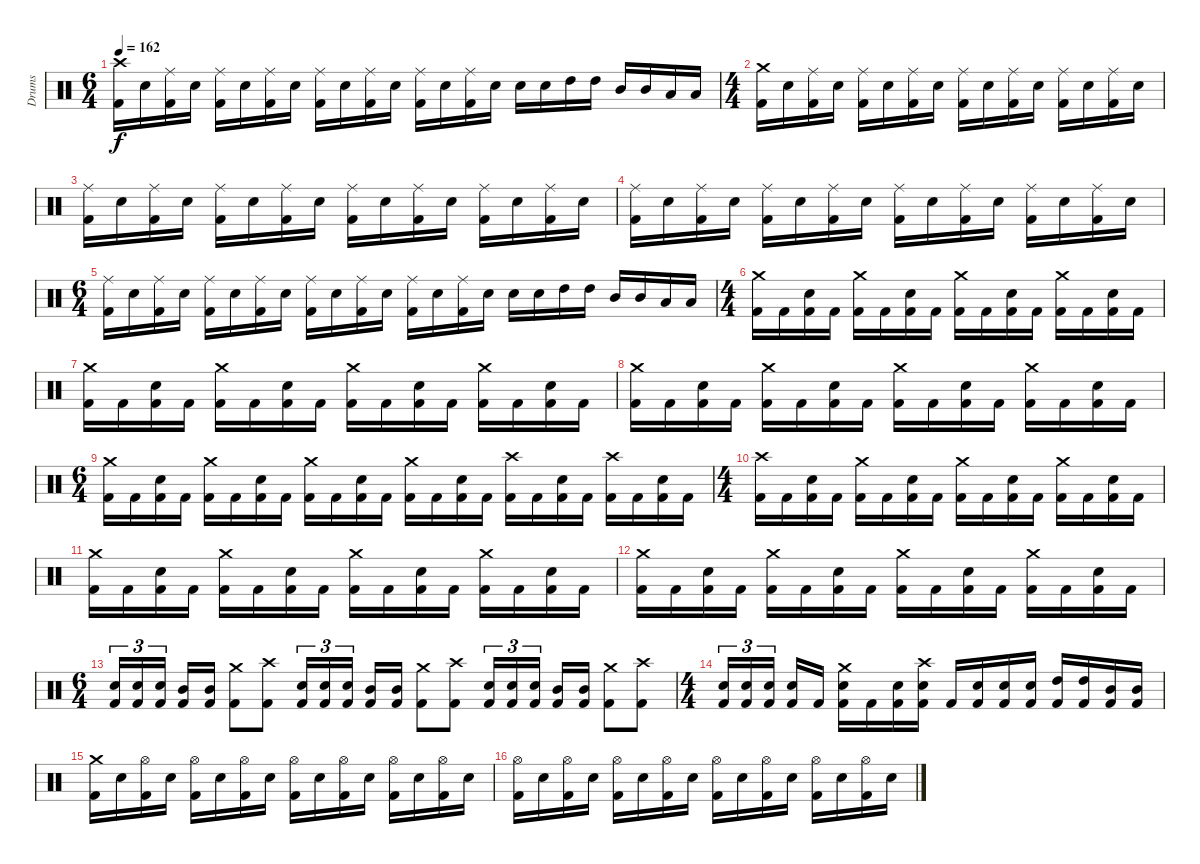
\track ("Drums" "Drums") {instrument percussion}
\staff {score}
\articulation defaults
\ts (6 4)
\tempo 162
\clef neutral
\ks c
("Kick (hit) 2" "Crash high (hit)").16{dy f} "Electric Snare (hit)".16 ("Kick (hit) 2" "Ride (middle)").16 "Electric Snare (hit)".16 ("Kick (hit) 2" "Ride (middle)").16 "Electric Snare (hit)".16 ("Kick (hit) 2" "Ride (middle)").16 "Electric Snare (hit)".16 ("Kick (hit) 2" "Ride (middle)").16 "Electric Snare (hit)".16 ("Kick (hit) 2" "Ride (middle)").16 "Electric Snare (hit)".16 ("Kick (hit) 2" "Ride (middle)").16 "Electric Snare (hit)".16 ("Kick (hit) 2" "Ride (middle)").16 "Electric Snare (hit)".16 "Electric Snare (hit)".16 "Electric Snare (hit)".16 "High Tom (hit)".16 "High Tom (hit)".16 "Mid Tom (hit)".16 "Mid Tom (hit)".16 "Low Tom (hit)".16 "Low Tom (hit)".16 |
\ts (4 4)
("Kick (hit) 2" "Crash medium (hit)").16 "Electric Snare (hit)".16 ("Kick (hit) 2" "Ride (middle)").16 "Electric Snare (hit)".16 ("Kick (hit) 2" "Ride (middle)").16 "Electric Snare (hit)".16 ("Kick (hit) 2" "Ride (middle)").16 "Electric Snare (hit)".16 ("Kick (hit) 2" "Ride (middle)").16 "Electric Snare (hit)".16 ("Kick (hit) 2" "Ride (middle)").16 "Electric Snare (hit)".16 ("Kick (hit) 2" "Ride (middle)").16 "Electric Snare (hit)".16 ("Kick (hit) 2" "Ride (middle)").16 "Electric Snare (hit)".16 |
("Kick (hit) 2" "Ride (middle)").16 "Electric Snare (hit)".16 ("Kick (hit) 2" "Ride (middle)").16 "Electric Snare (hit)".16 ("Kick (hit) 2" "Ride (middle)").16 "Electric Snare (hit)".16 ("Kick (hit) 2" "Ride (middle)").16 "Electric Snare (hit)".16 ("Kick (hit) 2" "Ride (middle)").16 "Electric Snare (hit)".16 ("Kick (hit) 2" "Ride (middle)").16 "Electric Snare (hit)".16 ("Kick (hit) 2" "Ride (middle)").16 "Electric Snare (hit)".16 ("Kick (hit) 2" "Ride (middle)").16 "Electric Snare (hit)".16 |
("Kick (hit) 2" "Ride (middle)").16 "Electric Snare (hit)".16 ("Kick (hit) 2" "Ride (middle)").16 "Electric Snare (hit)".16 ("Kick (hit) 2" "Ride (middle)").16 "Electric Snare (hit)".16 ("Kick (hit) 2" "Ride (middle)").16 "Electric Snare (hit)".16 ("Kick (hit) 2" "Ride (middle)").16 "Electric Snare (hit)".16 ("Kick (hit) 2" "Ride (middle)").16 "Electric Snare (hit)".16 ("Kick (hit) 2" "Ride (middle)").16 "Electric Snare (hit)".16 ("Kick (hit) 2" "Ride (middle)").16 "Electric Snare (hit)".16 |
\ts (6 4)
("Kick (hit) 2" "Ride (middle)").16 "Electric Snare (hit)".16 ("Kick (hit) 2" "Ride (middle)").16 "Electric Snare (hit)".16 ("Kick (hit) 2" "Ride (middle)").16 "Electric Snare (hit)".16 ("Kick (hit) 2" "Ride (middle)").16 "Electric Snare (hit)".16 ("Kick (hit) 2" "Ride (middle)").16 "Electric Snare (hit)".16 ("Kick (hit) 2" "Ride (middle)").16 "Electric Snare (hit)".16 ("Kick (hit) 2" "Ride (middle)").16 "Electric Snare (hit)".16 ("Kick (hit) 2" "Ride (middle)").16 "Electric Snare (hit)".16 "Electric Snare (hit)".16 "Electric Snare (hit)".16 "High Tom (hit)".16 "High Tom (hit)".16 "Mid Tom (hit)".16 "Mid Tom (hit)".16 "Low Tom (hit)".16 "Low Tom (hit)".16 |
\ts (4 4)
("Kick (hit) 2" "Crash medium (hit)").16 "Kick (hit) 2".16 ("Kick (hit) 2" "Electric Snare (hit)").16 "Kick (hit) 2".16 ("Kick (hit) 2" "Crash medium (hit)").16 "Kick (hit) 2".16 ("Kick (hit) 2" "Electric Snare (hit)").16 "Kick (hit) 2".16 ("Kick (hit) 2" "Crash medium (hit)").16 "Kick (hit) 2".16 ("Kick (hit) 2" "Electric Snare (hit)").16 "Kick (hit) 2".16 ("Kick (hit) 2" "Crash medium (hit)").16 "Kick (hit) 2".16 ("Kick (hit) 2" "Electric Snare (hit)").16 "Kick (hit) 2".16 |
("Kick (hit) 2" "Crash medium (hit)").16 "Kick (hit) 2".16 ("Kick (hit) 2" "Electric Snare (hit)").16 "Kick (hit) 2".16 ("Kick (hit) 2" "Crash medium (hit)").16 "Kick (hit) 2".16 ("Kick (hit) 2" "Electric Snare (hit)").16 "Kick (hit) 2".16 ("Kick (hit) 2" "Crash medium (hit)").16 "Kick (hit) 2".16 ("Kick (hit) 2" "Electric Snare (hit)").16 "Kick (hit) 2".16 ("Kick (hit) 2" "Crash medium (hit)").16 "Kick (hit) 2".16 ("Kick (hit) 2" "Electric Snare (hit)").16 "Kick (hit) 2".16 |
("Kick (hit) 2" "Crash medium (hit)").16 "Kick (hit) 2".16 ("Kick (hit) 2" "Electric Snare (hit)").16 "Kick (hit) 2".16 ("Kick (hit) 2" "Crash medium (hit)").16 "Kick (hit) 2".16 ("Kick (hit) 2" "Electric Snare (hit)").16 "Kick (hit) 2".16 ("Kick (hit) 2" "Crash medium (hit)").16 "Kick (hit) 2".16 ("Kick (hit) 2" "Electric Snare (hit)").16 "Kick (hit) 2".16 ("Kick (hit) 2" "Crash medium (hit)").16 "Kick (hit) 2".16 ("Kick (hit) 2" "Electric Snare (hit)").16 "Kick (hit) 2".16 |
\ts (6 4)
("Kick (hit) 2" "Crash medium (hit)").16 "Kick (hit) 2".16 ("Kick (hit) 2" "Electric Snare (hit)").16 "Kick (hit) 2".16 ("Kick (hit) 2" "Crash medium (hit)").16 "Kick (hit) 2".16 ("Kick (hit) 2" "Electric Snare (hit)").16 "Kick (hit) 2".16 ("Kick (hit) 2" "Crash medium (hit)").16 "Kick (hit) 2".16 ("Kick (hit) 2" "Electric Snare (hit)").16 "Kick (hit) 2".16 ("Kick (hit) 2" "Crash medium (hit)").16 "Kick (hit) 2".16 ("Kick (hit) 2" "Electric Snare (hit)").16 "Kick (hit) 2".16 ("Kick (hit) 2" "Crash high (hit)").16 "Kick (hit) 2".16 ("Kick (hit) 2" "Electric Snare (hit)").16 "Kick (hit) 2".16 ("Kick (hit) 2" "Crash high (hit)").16 "Kick (hit) 2".16 ("Kick (hit) 2" "Electric Snare (hit)").16 "Kick (hit) 2".16 |
\ts (4 4)
("Kick (hit) 2" "Crash high (hit)").16 "Kick (hit) 2".16 ("Kick (hit) 2" "Electric Snare (hit)").16 "Kick (hit) 2".16 ("Kick (hit) 2" "Crash medium (hit)").16 "Kick (hit) 2".16 ("Kick (hit) 2" "Electric Snare (hit)").16 "Kick (hit) 2".16 ("Kick (hit) 2" "Crash medium (hit)").16 "Kick (hit) 2".16 ("Kick (hit) 2" "Electric Snare (hit)").16 "Kick (hit) 2".16 ("Kick (hit) 2" "Crash medium (hit)").16 "Kick (hit) 2".16 ("Kick (hit) 2" "Electric Snare (hit)").16 "Kick (hit) 2".16 |
("Kick (hit) 2" "Crash medium (hit)").16 "Kick (hit) 2".16 ("Kick (hit) 2" "Electric Snare (hit)").16 "Kick (hit) 2".16 ("Kick (hit) 2" "Crash medium (hit)").16 "Kick (hit) 2".16 ("Kick (hit) 2" "Electric Snare (hit)").16 "Kick (hit) 2".16 ("Kick (hit) 2" "Crash medium (hit)").16 "Kick (hit) 2".16 ("Kick (hit) 2" "Electric Snare (hit)").16 "Kick (hit) 2".16 ("Kick (hit) 2" "Crash medium (hit)").16 "Kick (hit) 2".16 ("Kick (hit) 2" "Electric Snare (hit)").16 "Kick (hit) 2".16 |
("Kick (hit) 2" "Crash medium (hit)").16 "Kick (hit) 2".16 ("Kick (hit) 2" "Electric Snare (hit)").16 "Kick (hit) 2".16 ("Kick (hit) 2" "Crash medium (hit)").16 "Kick (hit) 2".16 ("Kick (hit) 2" "Electric Snare (hit)").16 "Kick (hit) 2".16 ("Kick (hit) 2" "Crash medium (hit)").16 "Kick (hit) 2".16 ("Kick (hit) 2" "Electric Snare (hit)").16 "Kick (hit) 2".16 ("Kick (hit) 2" "Crash medium (hit)").16 "Kick (hit) 2".16 ("Kick (hit) 2" "Electric Snare (hit)").16 "Kick (hit) 2".16 |
\ts (6 4)
("Kick (hit) 2" "Electric Snare (hit)").16{tu (3 2)} ("Kick (hit) 2" "Electric Snare (hit)").16{tu (3 2)} ("Kick (hit) 2" "Electric Snare (hit)").16{tu (3 2)} ("Kick (hit) 2" "Mid Tom (hit)").16 ("Kick (hit) 2" "Mid Tom (hit)").16 ("Kick (hit) 2" "Crash medium (hit)").8 ("Kick (hit) 2" "Crash high (hit)").8 ("Kick (hit) 2" "Electric Snare (hit)").16{tu (3 2)} ("Kick (hit) 2" "Electric Snare (hit)").16{tu (3 2)} ("Kick (hit) 2" "Electric Snare (hit)").16{tu (3 2)} ("Kick (hit) 2" "Mid Tom (hit)").16 ("Kick (hit) 2" "Mid Tom (hit)").16 ("Kick (hit) 2" "Crash medium (hit)").8 ("Kick (hit) 2" "Crash high (hit)").8 ("Kick (hit) 2" "Electric Snare (hit)").16{tu (3 2)} ("Kick (hit) 2" "Electric Snare (hit)").16{tu (3 2)} ("Kick (hit) 2" "Electric Snare (hit)").16{tu (3 2)} ("Kick (hit) 2" "Mid Tom (hit)").16 ("Kick (hit) 2" "Mid Tom (hit)").16 ("Kick (hit) 2" "Crash medium (hit)").8 ("Kick (hit) 2" "Crash high (hit)").8 |
\ts (4 4)
("Kick (hit) 2" "Electric Snare (hit)").16{tu (3 2)} ("Kick (hit) 2" "Electric Snare (hit)").16{tu (3 2)} ("Kick (hit) 2" "Electric Snare (hit)").16{tu (3 2)} ("Kick (hit) 2" "Electric Snare (hit)").16 "Kick (hit) 2".16 ("Kick (hit) 2" "Electric Snare (hit)" "Crash medium (hit)").16 "Kick (hit) 2".16 ("Kick (hit) 2" "Electric Snare (hit)").16 ("Kick (hit) 2" "Electric Snare (hit)" "Crash high (hit)").16 "Kick (hit) 2".16 ("Kick (hit) 2" "Electric Snare (hit)").16 ("Kick (hit) 2" "Electric Snare (hit)").16 ("Kick (hit) 2" "Electric Snare (hit)").16 ("Kick (hit) 2" "High Tom (hit)").16 ("Kick (hit) 2" "High Tom (hit)").16 ("Kick (hit) 2" "Mid Tom (hit)").16 ("Kick (hit) 2" "Mid Tom (hit)").16 |
("Kick (hit) 2" "Crash medium (hit)").16 "Electric Snare (hit)".16 ("Kick (hit) 2" "Hi-Hat (open)").16 "Electric Snare (hit)".16 ("Kick (hit) 2" "Hi-Hat (open)").16 "Electric Snare (hit)".16 ("Kick (hit) 2" "Hi-Hat (open)").16 "Electric Snare (hit)".16 ("Kick (hit) 2" "Hi-Hat (open)").16 "Electric Snare (hit)".16 ("Kick (hit) 2" "Hi-Hat (open)").16 "Electric Snare (hit)".16 ("Kick (hit) 2" "Hi-Hat (open)").16 "Electric Snare (hit)".16 ("Kick (hit) 2" "Hi-Hat (open)").16 "Electric Snare (hit)".16 |
("Kick (hit) 2" "Hi-Hat (open)").16 "Electric Snare (hit)".16 ("Kick (hit) 2" "Hi-Hat (open)").16 "Electric Snare (hit)".16 ("Kick (hit) 2" "Hi-Hat (open)").16 "Electric Snare (hit)".16 ("Kick (hit) 2" "Hi-Hat (open)").16 "Electric Snare (hit)".16 ("Kick (hit) 2" "Hi-Hat (open)").16 "Electric Snare (hit)".16 ("Kick (hit) 2" "Hi-Hat (open)").16 "Electric Snare (hit)".16 ("Kick (hit) 2" "Hi-Hat (open)").16 "Electric Snare (hit)".16 ("Kick (hit) 2" "Hi-Hat (open)").16 "Electric Snare (hit)".16
